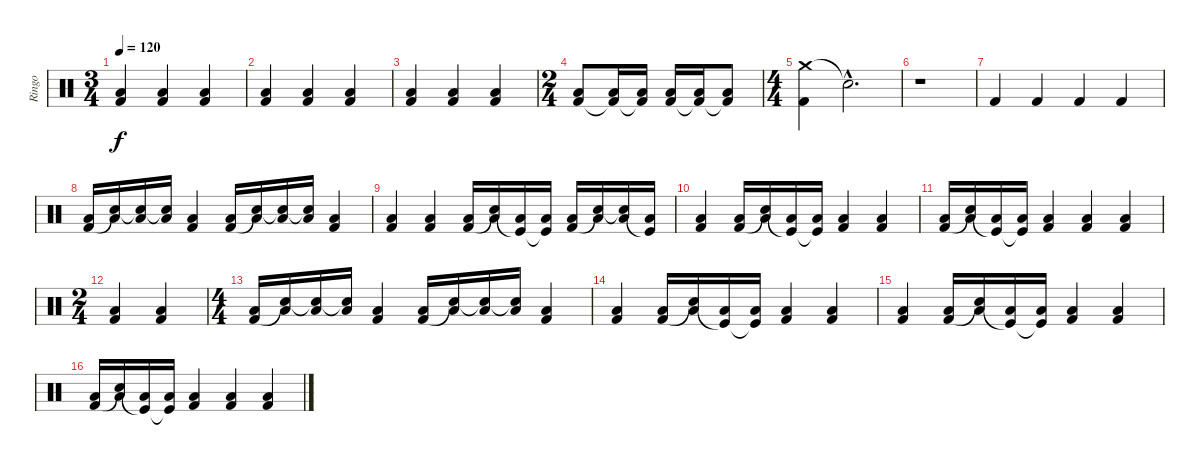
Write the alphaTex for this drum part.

\track ("Ringo" "Ringo") {instrument percussion}
\staff {score}
\articulation defaults
\ts (3 4)
\tempo 120
\clef neutral
\ks c
("Low Floor Tom (hit)" "Kick (hit) 2").4{dy f} ("Low Floor Tom (hit)" "Kick (hit) 2").4 ("Low Floor Tom (hit)" "Kick (hit) 2").4 |
("Low Floor Tom (hit)" "Kick (hit) 2").4 ("Low Floor Tom (hit)" "Kick (hit) 2").4 ("Low Floor Tom (hit)" "Kick (hit) 2").4 |
("Low Floor Tom (hit)" "Kick (hit) 2").4 ("Low Floor Tom (hit)" "Kick (hit) 2").4 ("Low Floor Tom (hit)" "Kick (hit) 2").4 |
\ts (2 4)
("Low Floor Tom (hit)" "Kick (hit) 2").8 ("Low Floor Tom (hit)" "Kick (hit) 2"{t}).16 ("Low Floor Tom (hit)" "Kick (hit) 2"{t}).16 ("Low Floor Tom (hit)" "Kick (hit) 2").16 ("Low Floor Tom (hit)" "Kick (hit) 2"{t}).16 ("Low Floor Tom (hit)" "Kick (hit) 2"{t}).8 |
\ts (4 4)
("Crash medium (hit)" "Kick (hit) 2").4 "Snare (hit)"{hac t}.2{d} |
r.1 |
"Kick (hit) 2".4{volume 16} "Kick (hit) 2".4 "Kick (hit) 2".4 "Kick (hit) 2".4 |
("Low Floor Tom (hit)" "Kick (hit) 2").16 ("Low Floor Tom (hit)" "Snare (hit)"{t}).16 ("Low Floor Tom (hit)" "Snare (hit)"{t}).16 ("Low Floor Tom (hit)" "Snare (hit)"{t}).16 ("Low Floor Tom (hit)" "Kick (hit) 2").4 ("Low Floor Tom (hit)" "Kick (hit) 2").16 ("Low Floor Tom (hit)" "Snare (hit)"{t}).16 ("Low Floor Tom (hit)" "Snare (hit)"{t}).16 ("Low Floor Tom (hit)" "Snare (hit)"{t}).16 ("Low Floor Tom (hit)" "Kick (hit) 2").4 |
("Low Floor Tom (hit)" "Kick (hit) 2").4 ("Low Floor Tom (hit)" "Kick (hit) 2").4 ("Low Floor Tom (hit)" "Kick (hit) 2").16 ("Low Floor Tom (hit)" "Snare (hit)"{t}).16 ("Low Floor Tom (hit)" "Kick (hit)"{t}).16 ("Low Floor Tom (hit)" "Kick (hit)"{t}).16 ("Low Floor Tom (hit)" "Kick (hit) 2").16 ("Low Floor Tom (hit)" "Snare (hit)"{t}).16 ("Low Floor Tom (hit)" "Snare (hit)"{t}).16 ("Low Floor Tom (hit)" "Kick (hit)"{t}).16 |
("Low Floor Tom (hit)" "Kick (hit) 2").4 ("Low Floor Tom (hit)" "Kick (hit) 2").16 ("Low Floor Tom (hit)" "Snare (hit)"{t}).16 ("Low Floor Tom (hit)" "Kick (hit)"{t}).16 ("Low Floor Tom (hit)" "Kick (hit)"{t}).16 ("Low Floor Tom (hit)" "Kick (hit) 2").4 ("Low Floor Tom (hit)" "Kick (hit) 2").4 |
("Low Floor Tom (hit)" "Kick (hit) 2").16 ("Low Floor Tom (hit)" "Snare (hit)"{t}).16 ("Low Floor Tom (hit)" "Kick (hit)"{t}).16 ("Low Floor Tom (hit)" "Kick (hit)"{t}).16 ("Low Floor Tom (hit)" "Kick (hit) 2").4 ("Low Floor Tom (hit)" "Kick (hit) 2").4 ("Low Floor Tom (hit)" "Kick (hit) 2").4 |
\ts (2 4)
("Low Floor Tom (hit)" "Kick (hit) 2").4 ("Low Floor Tom (hit)" "Kick (hit) 2").4 |
\ts (4 4)
("Low Floor Tom (hit)" "Kick (hit) 2").16 ("Low Floor Tom (hit)" "Snare (hit)"{t}).16 ("Low Floor Tom (hit)" "Snare (hit)"{t}).16 ("Low Floor Tom (hit)" "Snare (hit)"{t}).16 ("Low Floor Tom (hit)" "Kick (hit) 2").4 ("Low Floor Tom (hit)" "Kick (hit) 2").16 ("Low Floor Tom (hit)" "Snare (hit)"{t}).16 ("Low Floor Tom (hit)" "Snare (hit)"{t}).16 ("Low Floor Tom (hit)" "Snare (hit)"{t}).16 ("Low Floor Tom (hit)" "Kick (hit) 2").4 |
("Low Floor Tom (hit)" "Kick (hit) 2").4 ("Low Floor Tom (hit)" "Kick (hit) 2").16 ("Low Floor Tom (hit)" "Snare (hit)"{t}).16 ("Low Floor Tom (hit)" "Kick (hit)"{t}).16 ("Low Floor Tom (hit)" "Kick (hit)"{t}).16 ("Low Floor Tom (hit)" "Kick (hit) 2").4 ("Low Floor Tom (hit)" "Kick (hit) 2").4 |
("Low Floor Tom (hit)" "Kick (hit) 2").4 ("Low Floor Tom (hit)" "Kick (hit) 2").16 ("Low Floor Tom (hit)" "Snare (hit)"{t}).16 ("Low Floor Tom (hit)" "Kick (hit)"{t}).16 ("Low Floor Tom (hit)" "Kick (hit)"{t}).16 ("Low Floor Tom (hit)" "Kick (hit) 2").4 ("Low Floor Tom (hit)" "Kick (hit) 2").4 |
("Low Floor Tom (hit)" "Kick (hit) 2").16 ("Low Floor Tom (hit)" "Snare (hit)"{t}).16 ("Low Floor Tom (hit)" "Kick (hit)"{t}).16 ("Low Floor Tom (hit)" "Kick (hit)"{t}).16 ("Low Floor Tom (hit)" "Kick (hit) 2").4 ("Low Floor Tom (hit)" "Kick (hit) 2").4 ("Low Floor Tom (hit)" "Kick (hit) 2").4
